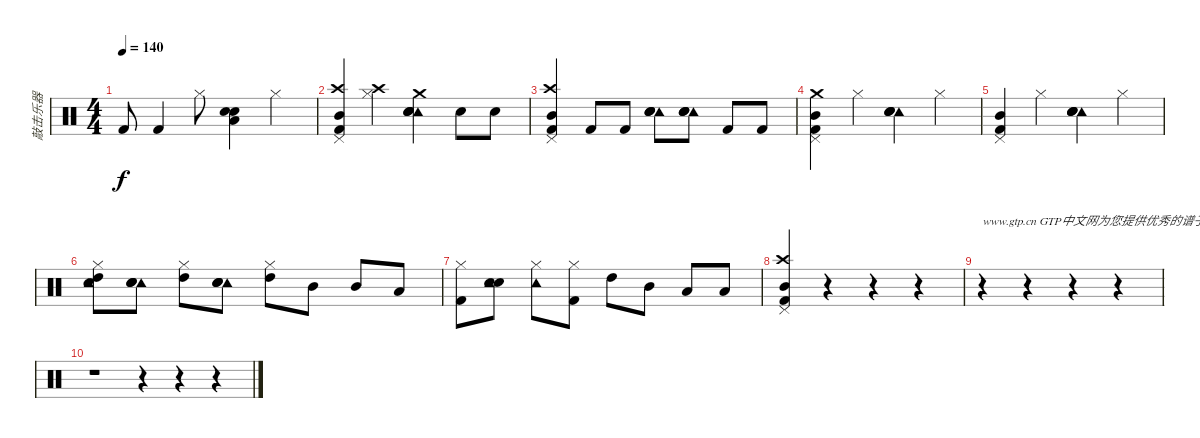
\track ("敲击乐器" "敲击乐器") {instrument percussion bank 3}
\staff {score}
\articulation defaults
\ts (4 4)
\tempo 140
\clef neutral
\ks c "Kick (hit) 2".8{dy f} "Kick (hit) 2".4 "Hi-Hat (closed)".8
("Low Tom (hit)" "Snare (hit) 2" "Hand Clap (hit)").4 "Hi-Hat (closed)".4 |
("Crash high (hit)" "Mid Tom (hit)" "Kick (hit) 2" "Pedal Hi-Hat (hit)").4 ("Crash high (hit)" "Hi-Hat (closed)").4 ("Crash medium (hit)" "Tambourine (hit)" "Electric Snare (hit)" "Hand Clap (hit)" "Snare (hit) 2").4 "Snare (hit) 2".8 "Snare (hit) 2".8 |
("Crash high (hit)" "Mid Tom (hit)" "Kick (hit) 2" "Pedal Hi-Hat (hit)").4 "Kick (hit) 2".8 "Kick (hit) 2".8 ("Tambourine (hit)" "Electric Snare (hit)" "Hand Clap (hit)" "Snare (hit) 2").8 ("Tambourine (hit)" "Electric Snare (hit)" "Hand Clap (hit)" "Snare (hit) 2").8 "Kick (hit) 2".8 "Kick (hit) 2".8 |
("Crash medium (hit)" "Mid Tom (hit)" "Kick (hit) 2" "Pedal Hi-Hat (hit)").4 "Hi-Hat (closed)".4 ("Tambourine (hit)" "Electric Snare (hit)" "Hand Clap (hit)" "Snare (hit) 2").4 "Hi-Hat (closed)".4 |
("Mid Tom (hit)" "Kick (hit) 2" "Pedal Hi-Hat (hit)").4 "Hi-Hat (closed)".4 ("Tambourine (hit)" "Electric Snare (hit)" "Hand Clap (hit)" "Snare (hit) 2").4 "Hi-Hat (closed)".4 |
("Tambourine (hit)" "Electric Snare (hit)" "Hi-Hat (closed)" "High Tom (hit)").8 ("Tambourine (hit)" "Electric Snare (hit)" "Hand Clap (hit)" "Snare (hit) 2").8 ("Hi-Hat (closed)" "High Tom (hit)").8 ("Tambourine (hit)" "Electric Snare (hit)" "Hand Clap (hit)" "Snare (hit) 2").8 ("High Tom (hit)" "Hi-Hat (closed)").8 "Mid Tom (hit)".8 "Mid Tom (hit)".8 "Low Tom (hit)".8 |
("Kick (hit) 2" "Hi-Hat (closed)").8 ("Snare (hit) 2" "Electric Snare (hit)" "Tambourine (hit)").8 ("Hi-Hat (closed)" "Tambourine (hit)").8 ("Kick (hit) 2" "Hi-Hat (closed)").8 "High Tom (hit)".8 "Mid Tom (hit)".8 "Low Tom (hit)".8 "Low Tom (hit)".8 |
("Crash high (hit)" "Mid Tom (hit)" "Kick (hit) 2" "Pedal Hi-Hat (hit)").4 r.4 r.4 r.4 |
r.4{txt "www.gtp.cn GTP中文网为您提供优秀的谱子"} r.4 r.4 r.4 |
r.1 r.4 r.4 r.4
